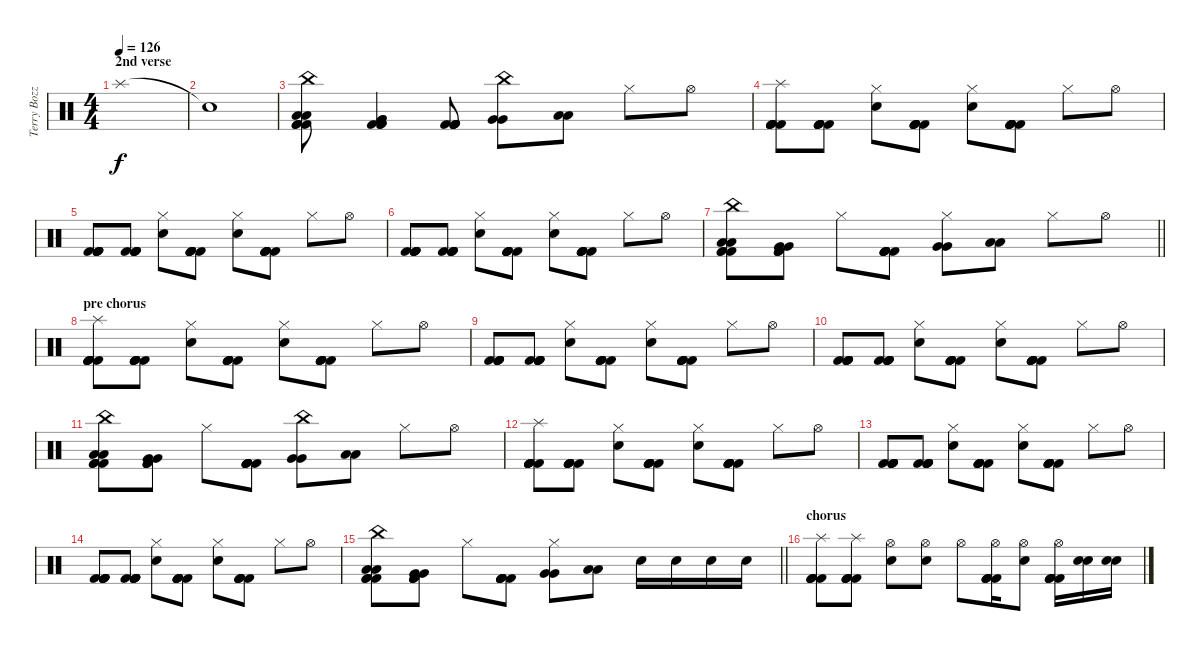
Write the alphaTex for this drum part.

\track ("Terry Bozzio" "Terry Bozz") {instrument percussion}
\staff {score}
\articulation defaults
\ts (4 4)
\section ("" "2nd verse")
\tempo 126
\clef neutral
\ks c "Splash (hit)".1{dy f}
|
"Snare (hit)"{t}.1 |
("China (hit)" "Low Tom (hit)" "Low Tom (hit)" "Kick (hit) 2" "Kick (hit) 2" "Kick (hit) 2").8 ("Very Low Tom (hit)" "Very Low Tom (hit)" "Kick (hit) 2" "Kick (hit) 2" "Kick (hit) 2").4 ("Kick (hit) 2" "Kick (hit) 2" "Kick (hit) 2" "Kick (hit) 2" "Kick (hit) 2").8 ("China (hit)" "Very Low Tom (hit)" "Very Low Tom (hit)").8 ("Low Floor Tom (hit)" "Low Floor Tom (hit)").8 "Hi-Hat (closed)".8 "Hi-Hat (open)".8 |
("Splash (hit)" "Kick (hit) 2" "Kick (hit) 2" "Kick (hit) 2" "Kick (hit) 2" "Kick (hit) 2").8 ("Kick (hit) 2" "Kick (hit) 2" "Kick (hit) 2" "Kick (hit) 2" "Kick (hit) 2").8 ("Hi-Hat (closed)" "Snare (hit) 2").8 ("Kick (hit) 2" "Kick (hit) 2" "Kick (hit) 2" "Kick (hit) 2" "Kick (hit) 2").8 ("Hi-Hat (closed)" "Snare (hit) 2").8 ("Kick (hit) 2" "Kick (hit) 2" "Kick (hit) 2" "Kick (hit) 2" "Kick (hit) 2").8 "Hi-Hat (closed)".8 "Hi-Hat (open)".8 |
("Kick (hit) 2" "Kick (hit) 2" "Kick (hit) 2" "Kick (hit) 2" "Kick (hit) 2").8 ("Kick (hit) 2" "Kick (hit) 2" "Kick (hit) 2" "Kick (hit) 2" "Kick (hit) 2").8 ("Hi-Hat (closed)" "Snare (hit) 2").8 ("Kick (hit) 2" "Kick (hit) 2" "Kick (hit) 2" "Kick (hit) 2" "Kick (hit) 2").8 ("Hi-Hat (closed)" "Snare (hit) 2").8 ("Kick (hit) 2" "Kick (hit) 2" "Kick (hit) 2" "Kick (hit) 2" "Kick (hit) 2").8 "Hi-Hat (closed)".8 "Hi-Hat (open)".8 |
("Kick (hit) 2" "Kick (hit) 2" "Kick (hit) 2" "Kick (hit) 2" "Kick (hit) 2").8 ("Kick (hit) 2" "Kick (hit) 2" "Kick (hit) 2" "Kick (hit) 2" "Kick (hit) 2").8 ("Hi-Hat (closed)" "Snare (hit) 2").8 ("Kick (hit) 2" "Kick (hit) 2" "Kick (hit) 2" "Kick (hit) 2" "Kick (hit) 2").8 ("Hi-Hat (closed)" "Snare (hit) 2").8 ("Kick (hit) 2" "Kick (hit) 2" "Kick (hit) 2" "Kick (hit) 2" "Kick (hit) 2").8 "Hi-Hat (closed)".8 "Hi-Hat (open)".8 |
\barLineRight lightlight
("China (hit)" "Low Tom (hit)" "Low Tom (hit)" "Kick (hit) 2" "Kick (hit) 2" "Kick (hit) 2").8 ("Very Low Tom (hit)" "Very Low Tom (hit)" "Kick (hit) 2" "Kick (hit) 2" "Kick (hit) 2").8 "Hi-Hat (closed)".8 ("Kick (hit) 2" "Kick (hit) 2" "Kick (hit) 2" "Kick (hit) 2" "Kick (hit) 2").8 ("Hi-Hat (closed)" "Very Low Tom (hit)" "Very Low Tom (hit)").8 ("Low Floor Tom (hit)" "Low Floor Tom (hit)").8 "Hi-Hat (closed)".8 "Hi-Hat (open)".8 |
\section ("" "pre chorus")
("Splash (hit)" "Kick (hit) 2" "Kick (hit) 2" "Kick (hit) 2" "Kick (hit) 2" "Kick (hit) 2").8 ("Kick (hit) 2" "Kick (hit) 2" "Kick (hit) 2" "Kick (hit) 2" "Kick (hit) 2").8 ("Hi-Hat (closed)" "Snare (hit) 2").8 ("Kick (hit) 2" "Kick (hit) 2" "Kick (hit) 2" "Kick (hit) 2" "Kick (hit) 2").8 ("Hi-Hat (closed)" "Snare (hit) 2").8 ("Kick (hit) 2" "Kick (hit) 2" "Kick (hit) 2" "Kick (hit) 2" "Kick (hit) 2").8 "Hi-Hat (closed)".8 "Hi-Hat (open)".8 |
("Kick (hit) 2" "Kick (hit) 2" "Kick (hit) 2" "Kick (hit) 2" "Kick (hit) 2").8 ("Kick (hit) 2" "Kick (hit) 2" "Kick (hit) 2" "Kick (hit) 2" "Kick (hit) 2").8 ("Hi-Hat (closed)" "Snare (hit) 2").8 ("Kick (hit) 2" "Kick (hit) 2" "Kick (hit) 2" "Kick (hit) 2" "Kick (hit) 2").8 ("Hi-Hat (closed)" "Snare (hit) 2").8 ("Kick (hit) 2" "Kick (hit) 2" "Kick (hit) 2" "Kick (hit) 2" "Kick (hit) 2").8 "Hi-Hat (closed)".8 "Hi-Hat (open)".8 |
("Kick (hit) 2" "Kick (hit) 2" "Kick (hit) 2" "Kick (hit) 2" "Kick (hit) 2").8 ("Kick (hit) 2" "Kick (hit) 2" "Kick (hit) 2" "Kick (hit) 2" "Kick (hit) 2").8 ("Hi-Hat (closed)" "Snare (hit) 2").8 ("Kick (hit) 2" "Kick (hit) 2" "Kick (hit) 2" "Kick (hit) 2" "Kick (hit) 2").8 ("Hi-Hat (closed)" "Snare (hit) 2").8 ("Kick (hit) 2" "Kick (hit) 2" "Kick (hit) 2" "Kick (hit) 2" "Kick (hit) 2").8 "Hi-Hat (closed)".8 "Hi-Hat (open)".8 |
("China (hit)" "Low Tom (hit)" "Low Tom (hit)" "Kick (hit) 2" "Kick (hit) 2" "Kick (hit) 2").8 ("Very Low Tom (hit)" "Very Low Tom (hit)" "Kick (hit) 2" "Kick (hit) 2" "Kick (hit) 2").8 "Hi-Hat (closed)".8 ("Kick (hit) 2" "Kick (hit) 2" "Kick (hit) 2" "Kick (hit) 2" "Kick (hit) 2").8 ("China (hit)" "Very Low Tom (hit)" "Very Low Tom (hit)").8 ("Low Floor Tom (hit)" "Low Floor Tom (hit)").8 "Hi-Hat (closed)".8 "Hi-Hat (open)".8 |
("Splash (hit)" "Kick (hit) 2" "Kick (hit) 2" "Kick (hit) 2" "Kick (hit) 2" "Kick (hit) 2").8 ("Kick (hit) 2" "Kick (hit) 2" "Kick (hit) 2" "Kick (hit) 2" "Kick (hit) 2").8 ("Hi-Hat (closed)" "Snare (hit) 2").8 ("Kick (hit) 2" "Kick (hit) 2" "Kick (hit) 2" "Kick (hit) 2" "Kick (hit) 2").8 ("Hi-Hat (closed)" "Snare (hit) 2").8 ("Kick (hit) 2" "Kick (hit) 2" "Kick (hit) 2" "Kick (hit) 2" "Kick (hit) 2").8 "Hi-Hat (closed)".8 "Hi-Hat (open)".8 |
("Kick (hit) 2" "Kick (hit) 2" "Kick (hit) 2" "Kick (hit) 2" "Kick (hit) 2").8 ("Kick (hit) 2" "Kick (hit) 2" "Kick (hit) 2" "Kick (hit) 2" "Kick (hit) 2").8 ("Hi-Hat (closed)" "Snare (hit) 2").8 ("Kick (hit) 2" "Kick (hit) 2" "Kick (hit) 2" "Kick (hit) 2" "Kick (hit) 2").8 ("Hi-Hat (closed)" "Snare (hit) 2").8 ("Kick (hit) 2" "Kick (hit) 2" "Kick (hit) 2" "Kick (hit) 2" "Kick (hit) 2").8 "Hi-Hat (closed)".8 "Hi-Hat (open)".8 |
("Kick (hit) 2" "Kick (hit) 2" "Kick (hit) 2" "Kick (hit) 2" "Kick (hit) 2").8 ("Kick (hit) 2" "Kick (hit) 2" "Kick (hit) 2" "Kick (hit) 2" "Kick (hit) 2").8 ("Hi-Hat (closed)" "Snare (hit) 2").8 ("Kick (hit) 2" "Kick (hit) 2" "Kick (hit) 2" "Kick (hit) 2" "Kick (hit) 2").8 ("Hi-Hat (closed)" "Snare (hit) 2").8 ("Kick (hit) 2" "Kick (hit) 2" "Kick (hit) 2" "Kick (hit) 2" "Kick (hit) 2").8 "Hi-Hat (closed)".8 "Hi-Hat (open)".8 |
\barLineRight lightlight
("China (hit)" "Low Tom (hit)" "Low Tom (hit)" "Kick (hit) 2" "Kick (hit) 2" "Kick (hit) 2").8 ("Very Low Tom (hit)" "Very Low Tom (hit)" "Kick (hit) 2" "Kick (hit) 2" "Kick (hit) 2").8 "Hi-Hat (closed)".8 ("Kick (hit) 2" "Kick (hit) 2" "Kick (hit) 2" "Kick (hit) 2" "Kick (hit) 2").8 ("Hi-Hat (closed)" "Very Low Tom (hit)" "Very Low Tom (hit)").8 ("Low Floor Tom (hit)" "Low Floor Tom (hit)").8 "Snare (hit) 2".16 "Snare (hit) 2".16 "Snare (hit) 2".16 "Snare (hit) 2".16 |
\section ("" "chorus")
("Splash (hit)" "Kick (hit) 2" "Kick (hit) 2" "Kick (hit) 2" "Kick (hit) 2").8 ("Splash (hit)" "Kick (hit) 2" "Kick (hit) 2" "Kick (hit) 2" "Kick (hit) 2").8 ("Hi-Hat (open)" "Snare (hit) 2").8 ("Hi-Hat (open)" "Snare (hit) 2").8 "Hi-Hat (open)".8 ("Hi-Hat (open)" "Kick (hit) 2" "Kick (hit) 2" "Kick (hit) 2" "Kick (hit) 2").16 ("Hi-Hat (open)" "Snare (hit) 2").8 ("Hi-Hat (open)" "Kick (hit) 2" "Kick (hit) 2" "Kick (hit) 2" "Kick (hit) 2").16 ("Snare (hit) 2" "Snare (hit) 2").16 ("Snare (hit) 2" "Snare (hit) 2").16
